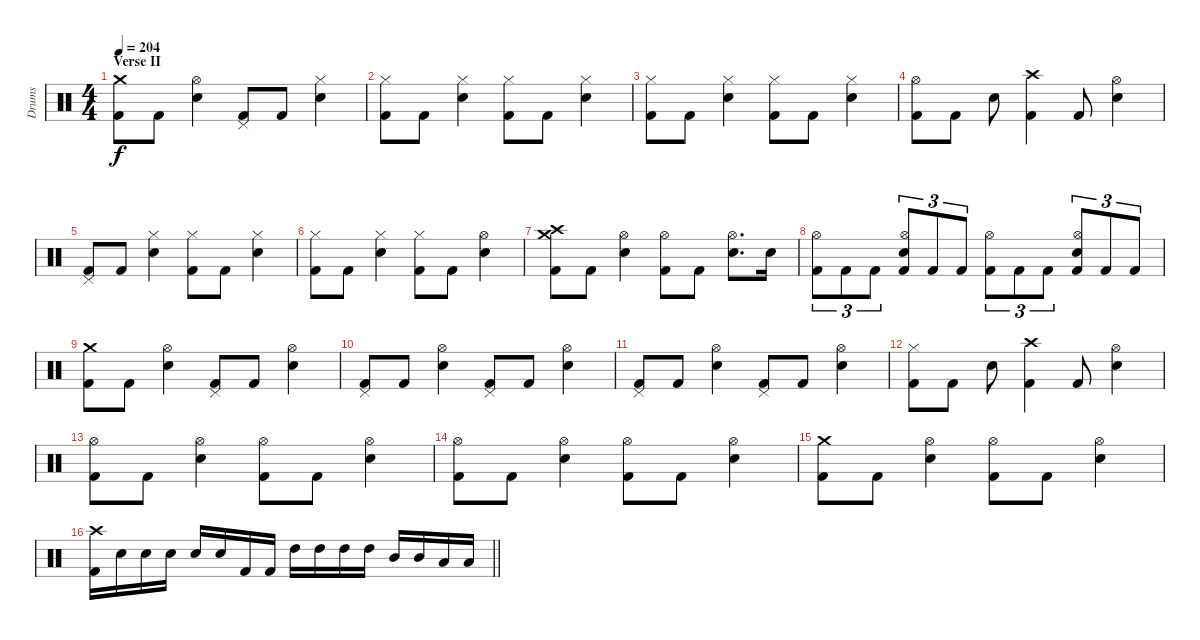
\track ("Drums" "Drums") {instrument percussion}
\staff {score}
\articulation defaults
\ts (4 4)
\section ("" "Verse II")
\tempo 204
\clef neutral
\ks c
("Crash medium (hit)" "Kick (hit) 2").8{dy f} "Kick (hit) 2".8 ("Hi-Hat (open)" "Electric Snare (hit)").4 ("Pedal Hi-Hat (hit)" "Kick (hit) 2").8 "Kick (hit) 2".8 ("Hi-Hat (closed)" "Electric Snare (hit)").4 |
("Hi-Hat (closed)" "Kick (hit) 2").8 "Kick (hit) 2".8 ("Hi-Hat (closed)" "Electric Snare (hit)").4 ("Hi-Hat (closed)" "Kick (hit) 2").8 "Kick (hit) 2".8 ("Hi-Hat (closed)" "Electric Snare (hit)").4 |
("Hi-Hat (closed)" "Kick (hit) 2").8 "Kick (hit) 2".8 ("Hi-Hat (closed)" "Electric Snare (hit)").4 ("Hi-Hat (closed)" "Kick (hit) 2").8 "Kick (hit) 2".8 ("Hi-Hat (closed)" "Electric Snare (hit)").4 |
("Hi-Hat (open)" "Kick (hit) 2").8 "Kick (hit) 2".8 "Electric Snare (hit)".8 ("Crash high (hit)" "Kick (hit) 2").4 "Kick (hit) 2".8 ("Hi-Hat (open)" "Electric Snare (hit)").4 |
("Pedal Hi-Hat (hit)" "Kick (hit) 2").8 "Kick (hit) 2".8 ("Hi-Hat (closed)" "Electric Snare (hit)").4 ("Hi-Hat (closed)" "Kick (hit) 2").8 "Kick (hit) 2".8 ("Hi-Hat (closed)" "Electric Snare (hit)").4 |
("Hi-Hat (closed)" "Kick (hit) 2").8 "Kick (hit) 2".8 ("Hi-Hat (closed)" "Electric Snare (hit)").4 ("Hi-Hat (closed)" "Kick (hit) 2").8 "Kick (hit) 2".8 ("Hi-Hat (open)" "Electric Snare (hit)").4 |
("Crash medium (hit)" "Crash high (hit)" "Kick (hit) 2").8 "Kick (hit) 2".8 ("Hi-Hat (open)" "Electric Snare (hit)").4 ("Hi-Hat (open)" "Kick (hit) 2").8 "Kick (hit) 2".8 ("Hi-Hat (open)" "Electric Snare (hit)").8{d} "Electric Snare (hit)".16 |
("Hi-Hat (open)" "Kick (hit) 2").8{tu (3 2)} "Kick (hit) 2".8{tu (3 2)} "Kick (hit) 2".8{tu (3 2)} ("Hi-Hat (open)" "Electric Snare (hit)" "Kick (hit) 2").8{tu (3 2)} "Kick (hit) 2".8{tu (3 2)} "Kick (hit) 2".8{tu (3 2)} ("Hi-Hat (open)" "Kick (hit) 2").8{tu (3 2)} "Kick (hit) 2".8{tu (3 2)} "Kick (hit) 2".8{tu (3 2)} ("Hi-Hat (open)" "Electric Snare (hit)" "Kick (hit) 2").8{tu (3 2)} "Kick (hit) 2".8{tu (3 2)} "Kick (hit) 2".8{tu (3 2)} |
("Crash medium (hit)" "Kick (hit) 2").8 "Kick (hit) 2".8 ("Hi-Hat (open)" "Electric Snare (hit)").4 ("Pedal Hi-Hat (hit)" "Kick (hit) 2").8 "Kick (hit) 2".8 ("Hi-Hat (open)" "Electric Snare (hit)").4 |
("Pedal Hi-Hat (hit)" "Kick (hit) 2").8 "Kick (hit) 2".8 ("Hi-Hat (open)" "Electric Snare (hit)").4 ("Pedal Hi-Hat (hit)" "Kick (hit) 2").8 "Kick (hit) 2".8 ("Hi-Hat (open)" "Electric Snare (hit)").4 |
("Pedal Hi-Hat (hit)" "Kick (hit) 2").8 "Kick (hit) 2".8 ("Hi-Hat (open)" "Electric Snare (hit)").4 ("Pedal Hi-Hat (hit)" "Kick (hit) 2").8 "Kick (hit) 2".8 ("Hi-Hat (open)" "Electric Snare (hit)").4 |
("Hi-Hat (closed)" "Kick (hit) 2").8 "Kick (hit) 2".8 "Electric Snare (hit)".8 ("Crash high (hit)" "Kick (hit) 2").4 "Kick (hit) 2".8 ("Hi-Hat (open)" "Electric Snare (hit)").4 |
("Hi-Hat (open)" "Kick (hit) 2").8 "Kick (hit) 2".8 ("Hi-Hat (open)" "Electric Snare (hit)").4 ("Hi-Hat (open)" "Kick (hit) 2").8 "Kick (hit) 2".8 ("Hi-Hat (open)" "Electric Snare (hit)").4 |
("Hi-Hat (open)" "Kick (hit) 2").8 "Kick (hit) 2".8 ("Hi-Hat (open)" "Electric Snare (hit)").4 ("Hi-Hat (open)" "Kick (hit) 2").8 "Kick (hit) 2".8 ("Hi-Hat (open)" "Electric Snare (hit)").4 |
("Crash medium (hit)" "Kick (hit) 2").8 "Kick (hit) 2".8 ("Hi-Hat (open)" "Electric Snare (hit)").4 ("Hi-Hat (open)" "Kick (hit) 2").8 "Kick (hit) 2".8 ("Hi-Hat (open)" "Electric Snare (hit)").4 |
\barLineRight lightlight
("Crash high (hit)" "Kick (hit) 2").16 "Electric Snare (hit)".16 "Electric Snare (hit)".16 "Electric Snare (hit)".16 "Electric Snare (hit)".16 "Electric Snare (hit)".16 "Kick (hit) 2".16 "Kick (hit) 2".16 "High Tom (hit)".16 "High Tom (hit)".16 "High Tom (hit)".16 "High Tom (hit)".16 "Mid Tom (hit)".16 "Mid Tom (hit)".16 "Low Tom (hit)".16 "Low Tom (hit)".16
